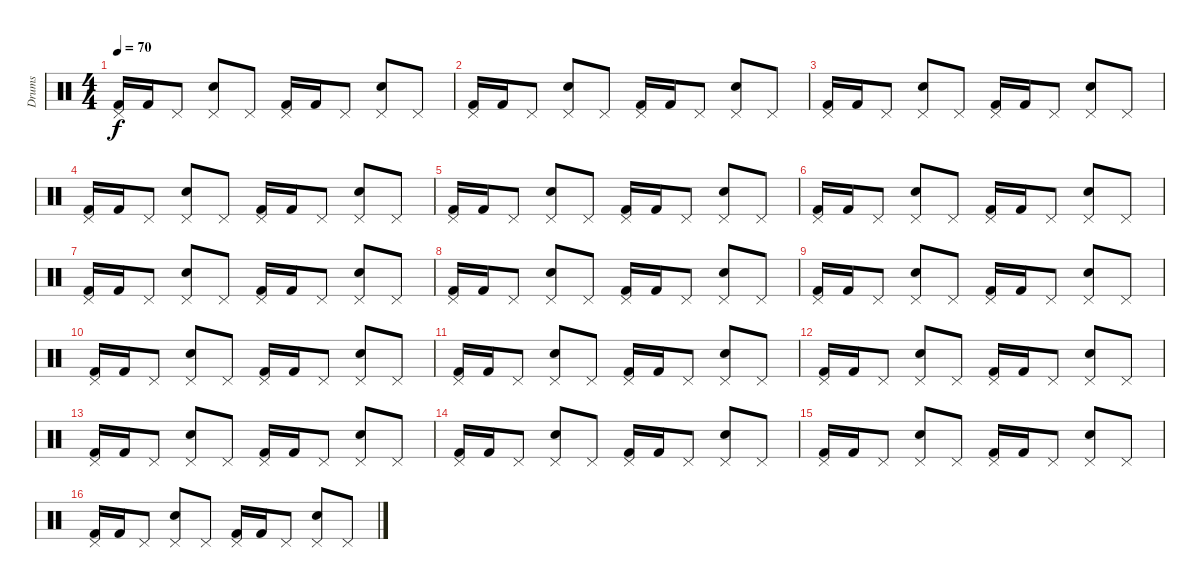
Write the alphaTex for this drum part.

\track ("Drums" "Drums") {instrument percussion}
\staff {score}
\articulation defaults
\ts (4 4)
\tempo 70
\clef neutral
\ks c
("Pedal Hi-Hat (hit)" "Kick (hit) 2").16{dy f} "Kick (hit) 2".16 "Pedal Hi-Hat (hit)".8 ("Pedal Hi-Hat (hit)" "Electric Snare (hit)").8 "Pedal Hi-Hat (hit)".8 ("Pedal Hi-Hat (hit)" "Kick (hit) 2").16 "Kick (hit) 2".16 "Pedal Hi-Hat (hit)".8 ("Pedal Hi-Hat (hit)" "Electric Snare (hit)").8 "Pedal Hi-Hat (hit)".8 |
("Pedal Hi-Hat (hit)" "Kick (hit) 2").16 "Kick (hit) 2".16 "Pedal Hi-Hat (hit)".8 ("Pedal Hi-Hat (hit)" "Electric Snare (hit)").8 "Pedal Hi-Hat (hit)".8 ("Pedal Hi-Hat (hit)" "Kick (hit) 2").16 "Kick (hit) 2".16 "Pedal Hi-Hat (hit)".8 ("Pedal Hi-Hat (hit)" "Electric Snare (hit)").8 "Pedal Hi-Hat (hit)".8 |
("Pedal Hi-Hat (hit)" "Kick (hit) 2").16 "Kick (hit) 2".16 "Pedal Hi-Hat (hit)".8 ("Pedal Hi-Hat (hit)" "Electric Snare (hit)").8 "Pedal Hi-Hat (hit)".8 ("Pedal Hi-Hat (hit)" "Kick (hit) 2").16 "Kick (hit) 2".16 "Pedal Hi-Hat (hit)".8 ("Pedal Hi-Hat (hit)" "Electric Snare (hit)").8 "Pedal Hi-Hat (hit)".8 |
("Pedal Hi-Hat (hit)" "Kick (hit) 2").16 "Kick (hit) 2".16 "Pedal Hi-Hat (hit)".8 ("Pedal Hi-Hat (hit)" "Electric Snare (hit)").8 "Pedal Hi-Hat (hit)".8 ("Pedal Hi-Hat (hit)" "Kick (hit) 2").16 "Kick (hit) 2".16 "Pedal Hi-Hat (hit)".8 ("Pedal Hi-Hat (hit)" "Electric Snare (hit)").8 "Pedal Hi-Hat (hit)".8 |
("Pedal Hi-Hat (hit)" "Kick (hit) 2").16 "Kick (hit) 2".16 "Pedal Hi-Hat (hit)".8 ("Pedal Hi-Hat (hit)" "Electric Snare (hit)").8 "Pedal Hi-Hat (hit)".8 ("Pedal Hi-Hat (hit)" "Kick (hit) 2").16 "Kick (hit) 2".16 "Pedal Hi-Hat (hit)".8 ("Pedal Hi-Hat (hit)" "Electric Snare (hit)").8 "Pedal Hi-Hat (hit)".8 |
("Pedal Hi-Hat (hit)" "Kick (hit) 2").16 "Kick (hit) 2".16 "Pedal Hi-Hat (hit)".8 ("Pedal Hi-Hat (hit)" "Electric Snare (hit)").8 "Pedal Hi-Hat (hit)".8 ("Pedal Hi-Hat (hit)" "Kick (hit) 2").16 "Kick (hit) 2".16 "Pedal Hi-Hat (hit)".8 ("Pedal Hi-Hat (hit)" "Electric Snare (hit)").8 "Pedal Hi-Hat (hit)".8 |
("Pedal Hi-Hat (hit)" "Kick (hit) 2").16 "Kick (hit) 2".16 "Pedal Hi-Hat (hit)".8 ("Pedal Hi-Hat (hit)" "Electric Snare (hit)").8 "Pedal Hi-Hat (hit)".8 ("Pedal Hi-Hat (hit)" "Kick (hit) 2").16 "Kick (hit) 2".16 "Pedal Hi-Hat (hit)".8 ("Pedal Hi-Hat (hit)" "Electric Snare (hit)").8 "Pedal Hi-Hat (hit)".8 |
("Pedal Hi-Hat (hit)" "Kick (hit) 2").16 "Kick (hit) 2".16 "Pedal Hi-Hat (hit)".8 ("Pedal Hi-Hat (hit)" "Electric Snare (hit)").8 "Pedal Hi-Hat (hit)".8 ("Pedal Hi-Hat (hit)" "Kick (hit) 2").16 "Kick (hit) 2".16 "Pedal Hi-Hat (hit)".8 ("Pedal Hi-Hat (hit)" "Electric Snare (hit)").8 "Pedal Hi-Hat (hit)".8 |
("Pedal Hi-Hat (hit)" "Kick (hit) 2").16 "Kick (hit) 2".16 "Pedal Hi-Hat (hit)".8 ("Pedal Hi-Hat (hit)" "Electric Snare (hit)").8 "Pedal Hi-Hat (hit)".8 ("Pedal Hi-Hat (hit)" "Kick (hit) 2").16 "Kick (hit) 2".16 "Pedal Hi-Hat (hit)".8 ("Pedal Hi-Hat (hit)" "Electric Snare (hit)").8 "Pedal Hi-Hat (hit)".8 |
("Pedal Hi-Hat (hit)" "Kick (hit) 2").16 "Kick (hit) 2".16 "Pedal Hi-Hat (hit)".8 ("Pedal Hi-Hat (hit)" "Electric Snare (hit)").8 "Pedal Hi-Hat (hit)".8 ("Pedal Hi-Hat (hit)" "Kick (hit) 2").16 "Kick (hit) 2".16 "Pedal Hi-Hat (hit)".8 ("Pedal Hi-Hat (hit)" "Electric Snare (hit)").8 "Pedal Hi-Hat (hit)".8 |
("Pedal Hi-Hat (hit)" "Kick (hit) 2").16 "Kick (hit) 2".16 "Pedal Hi-Hat (hit)".8 ("Pedal Hi-Hat (hit)" "Electric Snare (hit)").8 "Pedal Hi-Hat (hit)".8 ("Pedal Hi-Hat (hit)" "Kick (hit) 2").16 "Kick (hit) 2".16 "Pedal Hi-Hat (hit)".8 ("Pedal Hi-Hat (hit)" "Electric Snare (hit)").8 "Pedal Hi-Hat (hit)".8 |
("Pedal Hi-Hat (hit)" "Kick (hit) 2").16 "Kick (hit) 2".16 "Pedal Hi-Hat (hit)".8 ("Pedal Hi-Hat (hit)" "Electric Snare (hit)").8 "Pedal Hi-Hat (hit)".8 ("Pedal Hi-Hat (hit)" "Kick (hit) 2").16 "Kick (hit) 2".16 "Pedal Hi-Hat (hit)".8 ("Pedal Hi-Hat (hit)" "Electric Snare (hit)").8 "Pedal Hi-Hat (hit)".8 |
("Pedal Hi-Hat (hit)" "Kick (hit) 2").16 "Kick (hit) 2".16 "Pedal Hi-Hat (hit)".8 ("Pedal Hi-Hat (hit)" "Electric Snare (hit)").8 "Pedal Hi-Hat (hit)".8 ("Pedal Hi-Hat (hit)" "Kick (hit) 2").16 "Kick (hit) 2".16 "Pedal Hi-Hat (hit)".8 ("Pedal Hi-Hat (hit)" "Electric Snare (hit)").8 "Pedal Hi-Hat (hit)".8 |
("Pedal Hi-Hat (hit)" "Kick (hit) 2").16 "Kick (hit) 2".16 "Pedal Hi-Hat (hit)".8 ("Pedal Hi-Hat (hit)" "Electric Snare (hit)").8 "Pedal Hi-Hat (hit)".8 ("Pedal Hi-Hat (hit)" "Kick (hit) 2").16 "Kick (hit) 2".16 "Pedal Hi-Hat (hit)".8 ("Pedal Hi-Hat (hit)" "Electric Snare (hit)").8 "Pedal Hi-Hat (hit)".8 |
("Pedal Hi-Hat (hit)" "Kick (hit) 2").16 "Kick (hit) 2".16 "Pedal Hi-Hat (hit)".8 ("Pedal Hi-Hat (hit)" "Electric Snare (hit)").8 "Pedal Hi-Hat (hit)".8 ("Pedal Hi-Hat (hit)" "Kick (hit) 2").16 "Kick (hit) 2".16 "Pedal Hi-Hat (hit)".8 ("Pedal Hi-Hat (hit)" "Electric Snare (hit)").8 "Pedal Hi-Hat (hit)".8 |
("Pedal Hi-Hat (hit)" "Kick (hit) 2").16 "Kick (hit) 2".16 "Pedal Hi-Hat (hit)".8 ("Pedal Hi-Hat (hit)" "Electric Snare (hit)").8 "Pedal Hi-Hat (hit)".8 ("Pedal Hi-Hat (hit)" "Kick (hit) 2").16 "Kick (hit) 2".16 "Pedal Hi-Hat (hit)".8 ("Pedal Hi-Hat (hit)" "Electric Snare (hit)").8 "Pedal Hi-Hat (hit)".8
